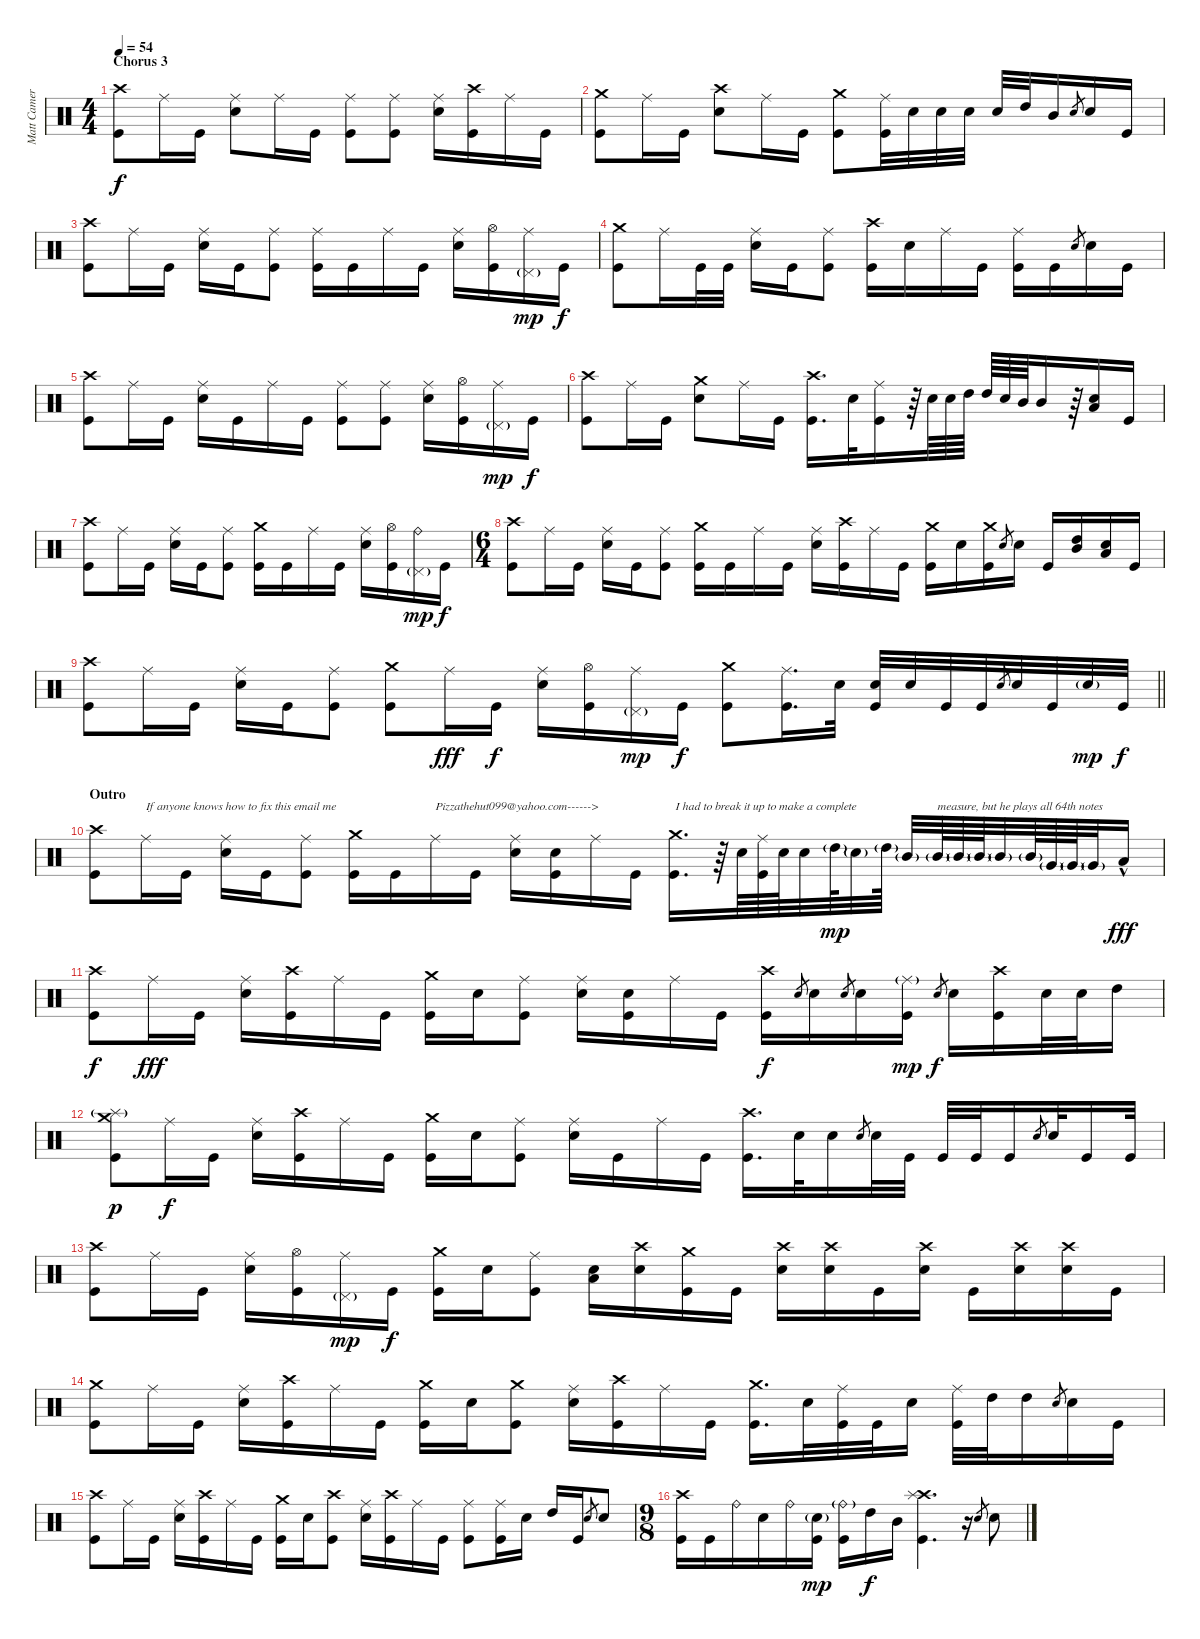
\track ("Matt Cameron" "Matt Camer") {instrument percussion}
\staff {score}
\articulation defaults
\ts (4 4)
\section ("" "Chorus 3")
\tempo 54
\clef neutral
\ks c
("Crash high (hit)" "Kick (hit)").8{dy f} "Ride (middle)".16 "Kick (hit)".16 ("Ride (middle)" "Electric Snare (hit)").8 "Ride (middle)".16 "Kick (hit)".16 ("Ride (middle)" "Kick (hit)").8 ("Ride (middle)" "Kick (hit)").8 ("Ride (middle)" "Electric Snare (hit)").16 ("Crash high (hit)" "Kick (hit)").16 "Ride (middle)".16 "Kick (hit)".16 |
("Crash medium (hit)" "Kick (hit)").8 "Ride (middle)".16 "Kick (hit)".16 ("Crash high (hit)" "Electric Snare (hit)").8 "Ride (middle)".16 "Kick (hit)".16 ("Crash medium (hit)" "Kick (hit)").8 ("Ride (middle)" "Kick (hit)").32 "Electric Snare (hit)".32 "Electric Snare (hit)".32 "Electric Snare (hit)".32 "Electric Snare (hit)".32 "High Tom (hit)".32 "Mid Tom (hit)".16 "Electric Snare (hit)".8{gr} "Electric Snare (hit)".16 "Kick (hit)".16 |
("Crash high (hit)" "Kick (hit)").8 "Ride (middle)".16 "Kick (hit)".16 ("Ride (middle)" "Electric Snare (hit)").16 "Kick (hit)".16 ("Ride (middle)" "Kick (hit)").8 ("Ride (middle)" "Kick (hit)").16 "Kick (hit)".16 "Ride (middle)".16 "Kick (hit)".16 ("Ride (middle)" "Electric Snare (hit)").16 ("Hi-Hat (open)" "Kick (hit)").16 ("Ride (middle)" "Pedal Hi-Hat (hit)"{g}).16{dy mp} "Kick (hit)".16{dy f} |
("Crash medium (hit)" "Kick (hit)").8 "Ride (middle)".16 "Kick (hit)".32 "Kick (hit)".32 ("Ride (middle)" "Electric Snare (hit)").16 "Kick (hit)".16 ("Ride (middle)" "Kick (hit)").8 ("Crash high (hit)" "Kick (hit)").16 "Electric Snare (hit)".16 "Ride (middle)".16 "Kick (hit)".16 ("Ride (middle)" "Kick (hit)").16 "Kick (hit)".16 "Electric Snare (hit)".8{gr} "Electric Snare (hit)".16 "Kick (hit)".16 |
("Crash high (hit)" "Kick (hit)").8 "Ride (middle)".16 "Kick (hit)".16 ("Ride (middle)" "Electric Snare (hit)").16 "Kick (hit)".16 "Ride (middle)".16 "Kick (hit)".16 ("Ride (middle)" "Kick (hit)").8 ("Ride (middle)" "Kick (hit)").8 ("Ride (middle)" "Electric Snare (hit)").16 ("Hi-Hat (open)" "Kick (hit)").16 ("Ride (middle)" "Pedal Hi-Hat (hit)"{g}).16{dy mp} "Kick (hit)".16{dy f} |
("Crash high (hit)" "Kick (hit)").8 "Ride (middle)".16 "Kick (hit)".16 ("Crash medium (hit)" "Electric Snare (hit)").8 "Ride (middle)".16 "Kick (hit)".16 ("Crash high (hit)" "Kick (hit)").16{d} "Electric Snare (hit)".32 ("Ride (middle)" "Kick (hit)").16 r.64 "Electric Snare (hit)".64 "Electric Snare (hit)".64 "High Tom (hit)".64 "High Tom (hit)".64 "Electric Snare (hit)".64 "Mid Tom (hit)".64 "Mid Tom (hit)".16 r.64 ("Electric Snare (hit)" "Low Floor Tom (hit)").16 "Kick (hit)".16 |
("Crash high (hit)" "Kick (hit)").8 "Ride (middle)".16 "Kick (hit)".16 ("Ride (middle)" "Electric Snare (hit)").16 "Kick (hit)".16 ("Ride (middle)" "Kick (hit)").8 ("Crash medium (hit)" "Kick (hit)").16 "Kick (hit)".16 "Ride (middle)".16 "Kick (hit)".16 ("Ride (middle)" "Electric Snare (hit)").16 ("Hi-Hat (open)" "Kick (hit)").16 ("Ride (bell)" "Pedal Hi-Hat (hit)"{g}).16{dy mp} "Kick (hit)".16{dy f} |
\ts (6 4)
("Crash high (hit)" "Kick (hit)").8 "Ride (middle)".16 "Kick (hit)".16 ("Ride (middle)" "Electric Snare (hit)").16 "Kick (hit)".16 ("Ride (middle)" "Kick (hit)").8 ("Crash medium (hit)" "Kick (hit)").16 "Kick (hit)".16 "Ride (middle)".16 "Kick (hit)".16 ("Ride (middle)" "Electric Snare (hit)").16 ("Crash high (hit)" "Kick (hit)").16 "Ride (middle)".16 "Kick (hit)".16 ("Crash medium (hit)" "Kick (hit)").16 "Electric Snare (hit)".16 ("Crash medium (hit)" "Kick (hit)").16 "Electric Snare (hit)".8{gr} "Electric Snare (hit)".16 "Kick (hit)".16 ("High Tom (hit)" "Mid Tom (hit)").16 ("Electric Snare (hit)" "Low Floor Tom (hit)").16 "Kick (hit)".16 |
\barLineRight lightlight
("Crash high (hit)" "Kick (hit)").8 "Ride (middle)".16 "Kick (hit)".16 ("Ride (middle)" "Electric Snare (hit)").16 "Kick (hit)".16 ("Ride (middle)" "Kick (hit)").8 ("Crash medium (hit)" "Kick (hit)").8 "Ride (middle)".16{dy fff} "Kick (hit)".16{dy f} ("Ride (middle)" "Electric Snare (hit)").16 ("Hi-Hat (open)" "Kick (hit)").16 ("Ride (middle)" "Pedal Hi-Hat (hit)"{g}).16{dy mp} "Kick (hit)".16{dy f} ("Crash medium (hit)" "Kick (hit)").8 ("Ride (middle)" "Kick (hit)").16{d} "Electric Snare (hit)".32 ("Electric Snare (hit)" "Kick (hit)").32 "Electric Snare (hit)".32 "Kick (hit)".32 "Kick (hit)".32 "Electric Snare (hit)".8{gr} "Electric Snare (hit)".32 "Kick (hit)".32 "Electric Snare (hit)"{g}.32{dy mp} "Kick (hit)".32{dy f} |
\section ("" "Outro")
("Crash high (hit)" "Kick (hit)").8 "Ride (middle)".16{txt "If anyone knows how to fix this email me"} "Kick (hit)".16 ("Ride (middle)" "Electric Snare (hit)").16 "Kick (hit)".16 ("Ride (middle)" "Kick (hit)").8 ("Crash medium (hit)" "Kick (hit)").16 "Kick (hit)".16 "Ride (middle)".16{txt "Pizzathehut099@yahoo.com------>"} "Kick (hit)".16 ("Ride (middle)" "Electric Snare (hit)").16 ("Electric Snare (hit)" "Kick (hit)").16 "Ride (middle)".16 "Kick (hit)".16 ("Crash medium (hit)" "Kick (hit)").16{d txt "I had to break it up to make a complete"} r.64 "Electric Snare (hit)".64 ("Ride (middle)" "Kick (hit)").64 "Electric Snare (hit)".64 "Electric Snare (hit)".32 "High Tom (hit)"{g}.64{dy mp} "Electric Snare (hit)"{g}.32 "High Tom (hit)"{g}.64 "Mid Tom (hit)"{g}.32 "Mid Tom (hit)"{g}.64{txt "measure, but he plays all 64th notes"} "Mid Tom (hit)"{g}.64 "Mid Tom (hit)"{g}.64 "Mid Tom (hit)"{g}.32 "Mid Tom (hit)"{g}.64 "Very Low Tom (hit)"{g}.64 "Very Low Tom (hit)"{g}.64 "Very Low Tom (hit)"{g}.32 "Low Floor Tom (hit)"{hac}.16{dy fff} |
("Crash high (hit)" "Kick (hit)").8{dy f} "Ride (middle)".16{dy fff} "Kick (hit)".16 ("Ride (middle)" "Electric Snare (hit)").16 ("Crash high (hit)" "Kick (hit)").16 "Ride (middle)".16 "Kick (hit)".16 ("Crash medium (hit)" "Kick (hit)").16 "Electric Snare (hit)".16 ("Ride (middle)" "Kick (hit)").8 ("Ride (middle)" "Electric Snare (hit)").16 ("Electric Snare (hit)" "Kick (hit)").16 "Ride (middle)".16 "Kick (hit)".16 ("Crash high (hit)" "Kick (hit)").16{dy f} "Electric Snare (hit)".8{gr} "Electric Snare (hit)".16 "Electric Snare (hit)".8{gr} "Electric Snare (hit)".16 ("Ride (middle)"{g} "Kick (hit)").16{dy mp} "Electric Snare (hit)".8{gr dy f} "Electric Snare (hit)".16 ("Crash high (hit)" "Kick (hit)").16 "Electric Snare (hit)".32 "Electric Snare (hit)".32 "High Tom (hit)".16 |
("Crash medium (hit)" "Splash (hit)"{g} "Kick (hit)").8{dy p} "Ride (middle)".16{dy f} "Kick (hit)".16 ("Ride (middle)" "Electric Snare (hit)").16 ("Crash high (hit)" "Kick (hit)").16 "Ride (middle)".16 "Kick (hit)".16 ("Crash medium (hit)" "Kick (hit)").16 "Electric Snare (hit)".16 ("Ride (middle)" "Kick (hit)").8 ("Ride (middle)" "Electric Snare (hit)").16 "Kick (hit)".16 "Ride (middle)".16 "Kick (hit)".16 ("Crash high (hit)" "Kick (hit)").16{d} "Electric Snare (hit)".32 "Electric Snare (hit)".16 "Electric Snare (hit)".8{gr} "Electric Snare (hit)".32 "Kick (hit)".32 "Kick (hit)".32 "Kick (hit)".32 "Kick (hit)".16 "Electric Snare (hit)".8{gr} "Electric Snare (hit)".32 "Kick (hit)".16 "Kick (hit)".32 |
("Crash high (hit)" "Kick (hit)").8 "Ride (middle)".16 "Kick (hit)".16 ("Ride (middle)" "Electric Snare (hit)").16 ("Hi-Hat (open)" "Kick (hit)").16 ("Ride (middle)" "Pedal Hi-Hat (hit)"{g}).16{dy mp} "Kick (hit)".16{dy f} ("Crash medium (hit)" "Kick (hit)").16 "Electric Snare (hit)".16 ("Ride (middle)" "Kick (hit)").8 ("Electric Snare (hit)" "Low Floor Tom (hit)").16 ("Crash high (hit)" "Electric Snare (hit)").16 ("Crash medium (hit)" "Kick (hit)").16 "Kick (hit)".16 ("Crash high (hit)" "Electric Snare (hit)").16 ("Crash high (hit)" "Electric Snare (hit)").16 "Kick (hit)".16 ("Crash high (hit)" "Electric Snare (hit)").16 "Kick (hit)".16 ("Crash high (hit)" "Electric Snare (hit)").16 ("Crash high (hit)" "Electric Snare (hit)").16 "Kick (hit)".16 |
("Crash medium (hit)" "Kick (hit)").8 "Ride (middle)".16 "Kick (hit)".16 ("Ride (middle)" "Electric Snare (hit)").16 ("Crash high (hit)" "Kick (hit)").16 "Ride (middle)".16 "Kick (hit)".16 ("Crash medium (hit)" "Kick (hit)").16 "Electric Snare (hit)".16 ("Crash medium (hit)" "Kick (hit)").8 ("Ride (middle)" "Electric Snare (hit)").16 ("Crash high (hit)" "Kick (hit)").16 "Ride (middle)".16 "Kick (hit)".16 ("Crash medium (hit)" "Kick (hit)").16{d} "Electric Snare (hit)".32 ("Ride (middle)" "Kick (hit)").32 "Kick (hit)".32 "Electric Snare (hit)".16 ("Ride (middle)" "Kick (hit)").32 "High Tom (hit)".32 "High Tom (hit)".16 "Electric Snare (hit)".8{gr} "Electric Snare (hit)".16 "Kick (hit)".16 |
("Crash high (hit)" "Kick (hit)").8 "Ride (middle)".16 "Kick (hit)".16 ("Ride (middle)" "Electric Snare (hit)").16 ("Crash high (hit)" "Kick (hit)").16 "Ride (middle)".16 "Kick (hit)".16 ("Crash medium (hit)" "Kick (hit)").16 "Electric Snare (hit)".16 ("Crash high (hit)" "Kick (hit)").8 ("Ride (middle)" "Electric Snare (hit)").16 ("Crash high (hit)" "Kick (hit)").16 "Ride (middle)".16 "Kick (hit)".16 ("Ride (middle)" "Kick (hit)").8 ("Ride (middle)" "Kick (hit)").16 "Electric Snare (hit)".16 "High Tom (hit)".16 "Kick (hit)".16 "Electric Snare (hit)".8{gr} "Electric Snare (hit)".8 |
\ts (9 8)
("Crash high (hit)" "Kick (hit)").16 "Kick (hit)".16 "Ride (bell)".16 "Electric Snare (hit)".16 "Ride (bell)".16 ("Electric Snare (hit)"{g} "Kick (hit)").16{dy mp} ("Ride (bell)"{g} "Kick (hit)").16 "High Tom (hit)".16{dy f} "Mid Tom (hit)".16 ("Crash high (hit)" "Splash (hit)" "Kick (hit)").4{d} r.16 "Electric Snare (hit)".8{gr} "Electric Snare (hit)".8
